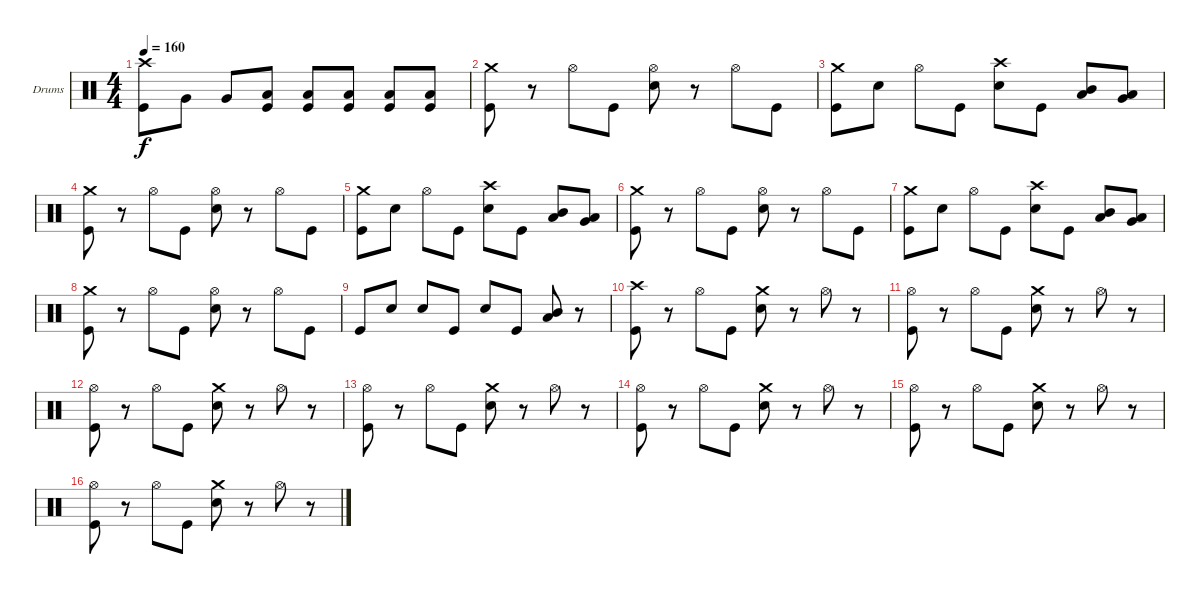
\bracketExtendMode groupsimilarinstruments
\firstSystemTrackNameOrientation horizontal
\otherSystemsTrackNameOrientation horizontal
\track ("Drumkit" "Drums") {instrument percussion}
\staff {score}
\articulation defaults
\ts (4 4)
\tempo 160
\clef neutral
\ks c
("Crash high (hit)" "Kick (hit)").8{dy f} "Very Low Tom (hit)".8 "Very Low Tom (hit)".8 ("Low Tom (hit)" "Kick (hit)").8 ("Low Tom (hit)" "Kick (hit)").8 ("Low Tom (hit)" "Kick (hit)").8 ("Low Tom (hit)" "Kick (hit)").8 ("Low Tom (hit)" "Kick (hit)").8 |
("Crash medium (hit)" "Kick (hit)").8 r.8 "Hi-Hat (open)".8 "Kick (hit)".8 ("Hi-Hat (open)" "Snare (hit) 2").8 r.8 "Hi-Hat (open)".8 "Kick (hit)".8 |
("Crash medium (hit)" "Kick (hit)").8 "Snare (hit) 2".8 "Hi-Hat (open)".8 "Kick (hit)".8 ("Crash high (hit)" "Snare (hit) 2").8 "Kick (hit)".8 ("Mid Tom (hit)" "Low Tom (hit)").8 ("Low Tom (hit)" "Very Low Tom (hit)").8 |
("Crash medium (hit)" "Kick (hit)").8 r.8 "Hi-Hat (open)".8 "Kick (hit)".8 ("Hi-Hat (open)" "Snare (hit) 2").8 r.8 "Hi-Hat (open)".8 "Kick (hit)".8 |
("Crash medium (hit)" "Kick (hit)").8 "Snare (hit) 2".8 "Hi-Hat (open)".8 "Kick (hit)".8 ("Crash high (hit)" "Snare (hit) 2").8 "Kick (hit)".8 ("Mid Tom (hit)" "Low Tom (hit)").8 ("Low Tom (hit)" "Very Low Tom (hit)").8 |
("Crash medium (hit)" "Kick (hit)").8 r.8 "Hi-Hat (open)".8 "Kick (hit)".8 ("Hi-Hat (open)" "Snare (hit) 2").8 r.8 "Hi-Hat (open)".8 "Kick (hit)".8 |
("Crash medium (hit)" "Kick (hit)").8 "Snare (hit) 2".8 "Hi-Hat (open)".8 "Kick (hit)".8 ("Crash high (hit)" "Snare (hit) 2").8 "Kick (hit)".8 ("Mid Tom (hit)" "Low Tom (hit)").8 ("Low Tom (hit)" "Very Low Tom (hit)").8 |
("Crash medium (hit)" "Kick (hit)").8 r.8 "Hi-Hat (open)".8 "Kick (hit)".8 ("Hi-Hat (open)" "Snare (hit) 2").8 r.8 "Hi-Hat (open)".8 "Kick (hit)".8 |
"Kick (hit)".8 "Snare (hit) 2".8 "Snare (hit) 2".8 "Kick (hit)".8 "Snare (hit) 2".8 "Kick (hit)".8 ("Mid Tom (hit)" "Low Tom (hit)").8 r.8 |
("Crash high (hit)" "Kick (hit)").8 r.8 "Hi-Hat (open)".8 "Kick (hit)".8 ("Crash medium (hit)" "Snare (hit) 2").8 r.8 "Hi-Hat (open)".8 r.8 |
("Hi-Hat (open)" "Kick (hit)").8 r.8 "Hi-Hat (open)".8 "Kick (hit)".8 ("Crash medium (hit)" "Snare (hit) 2").8 r.8 "Hi-Hat (open)".8 r.8 |
("Hi-Hat (open)" "Kick (hit)").8 r.8 "Hi-Hat (open)".8 "Kick (hit)".8 ("Crash medium (hit)" "Snare (hit) 2").8 r.8 "Hi-Hat (open)".8 r.8 |
("Hi-Hat (open)" "Kick (hit)").8 r.8 "Hi-Hat (open)".8 "Kick (hit)".8 ("Crash medium (hit)" "Snare (hit) 2").8 r.8 "Hi-Hat (open)".8 r.8 |
("Hi-Hat (open)" "Kick (hit)").8 r.8 "Hi-Hat (open)".8 "Kick (hit)".8 ("Crash medium (hit)" "Snare (hit) 2").8 r.8 "Hi-Hat (open)".8 r.8 |
("Hi-Hat (open)" "Kick (hit)").8 r.8 "Hi-Hat (open)".8 "Kick (hit)".8 ("Crash medium (hit)" "Snare (hit) 2").8 r.8 "Hi-Hat (open)".8 r.8 |
("Hi-Hat (open)" "Kick (hit)").8 r.8 "Hi-Hat (open)".8 "Kick (hit)".8 ("Crash medium (hit)" "Snare (hit) 2").8 r.8 "Hi-Hat (open)".8 r.8
